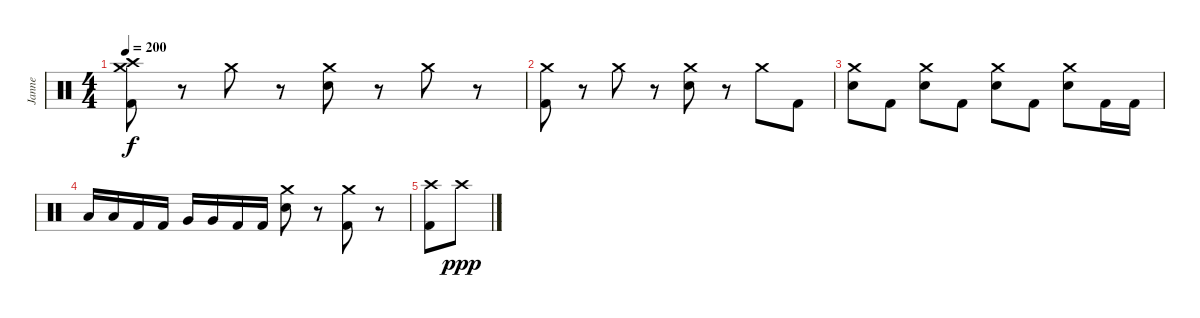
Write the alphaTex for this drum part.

\track ("Janne" "Janne") {instrument percussion}
\staff {score}
\articulation defaults
\ts (4 4)
\tempo 200
\clef neutral
\ks c
("Crash high (hit)" "Crash medium (hit)" "Kick (hit) 2").8{dy f} r.8 "Crash medium (hit)".8 r.8 ("Crash medium (hit)" "Electric Snare (hit)").8 r.8 "Crash medium (hit)".8 r.8 |
("Crash medium (hit)" "Kick (hit) 2").8 r.8 "Crash medium (hit)".8 r.8 ("Crash medium (hit)" "Electric Snare (hit)").8 r.8 "Crash medium (hit)".8 "Kick (hit) 2".8 |
("Crash medium (hit)" "Electric Snare (hit)").8 "Kick (hit) 2".8 ("Crash medium (hit)" "Electric Snare (hit)").8 "Kick (hit) 2".8 ("Crash medium (hit)" "Electric Snare (hit)").8 "Kick (hit) 2".8 ("Crash medium (hit)" "Electric Snare (hit)").8 "Kick (hit) 2".16 "Kick (hit) 2".16 |
"Low Tom (hit)".16 "Low Tom (hit)".16 "Kick (hit) 2".16 "Kick (hit) 2".16 "Very Low Tom (hit)".16 "Very Low Tom (hit)".16 "Kick (hit) 2".16 "Kick (hit) 2".16 ("Crash medium (hit)" "Electric Snare (hit)").8 r.8 ("Crash medium (hit)" "Kick (hit) 2").8 r.8 |
("Crash high (hit)" "Kick (hit) 2").8 "Crash high (hit)".8{dy ppp}
